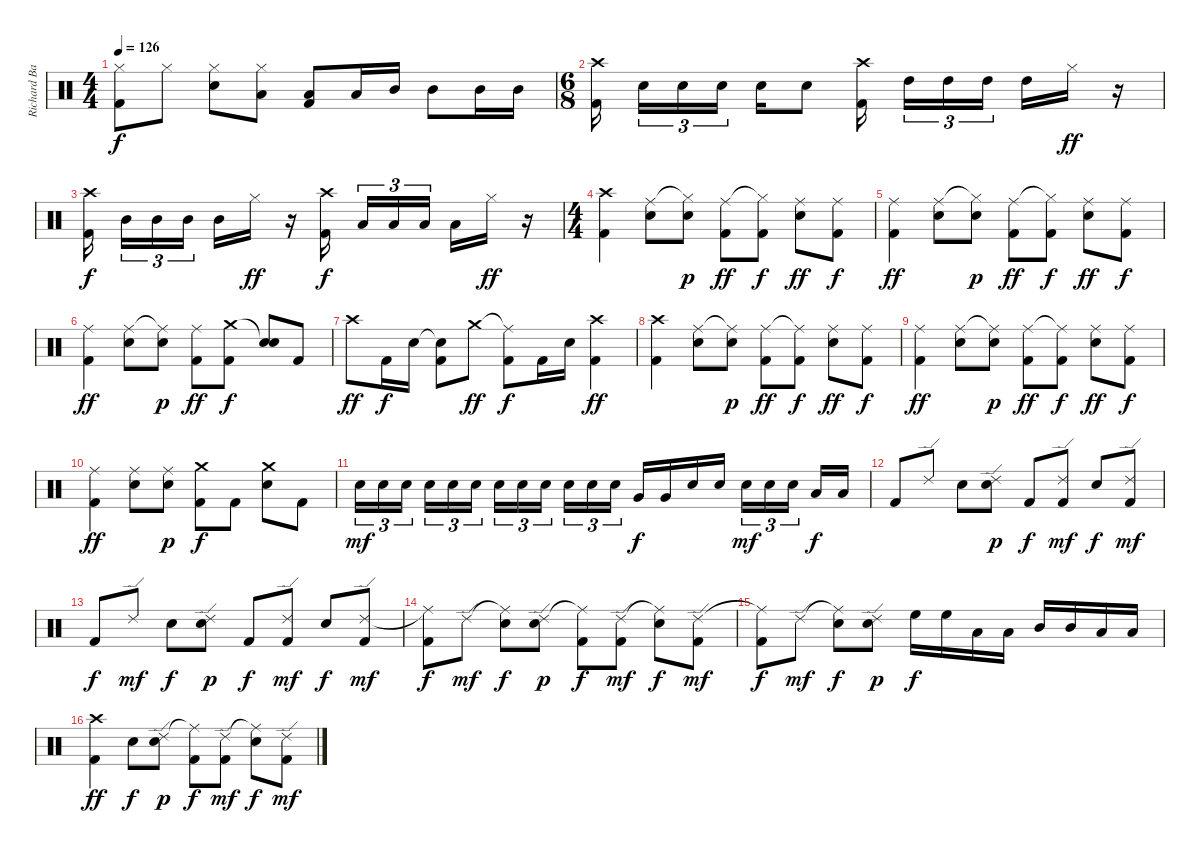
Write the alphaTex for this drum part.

\track ("Richard Bailey" "Richard Ba") {instrument percussion}
\staff {score}
\articulation defaults
\ts (4 4)
\tempo 126
\clef neutral
\ks c
("Hi-Hat (closed)" "Kick (hit) 2").8{dy f} "Hi-Hat (closed)".8 ("Hi-Hat (closed)" "Snare (hit) 2").8 ("Hi-Hat (closed)" "Low Tom (hit)").8 ("Low Tom (hit)" "Kick (hit) 2").8 "Low Tom (hit)".16 "Mid Tom (hit)".16 "Mid Tom (hit)".8 "Mid Tom (hit)".16 "Mid Tom (hit)".16 |
\ts (6 8)
("Crash high (hit)" "Kick (hit) 2").16 "Snare (hit) 2".16{tu (3 2)} "Snare (hit) 2".16{tu (3 2)} "Snare (hit) 2".16{tu (3 2)} "Snare (hit) 2".16 "Snare (hit) 2".8 ("Crash high (hit)" "Kick (hit) 2").16 "High Tom (hit)".16{tu (3 2)} "High Tom (hit)".16{tu (3 2)} "High Tom (hit)".16{tu (3 2)} "High Tom (hit)".16 "Hi-Hat (closed)".16{dy ff} r.16 |
("Crash high (hit)" "Kick (hit) 2").16{dy f} "Mid Tom (hit)".16{tu (3 2)} "Mid Tom (hit)".16{tu (3 2)} "Mid Tom (hit)".16{tu (3 2)} "Mid Tom (hit)".16 "Hi-Hat (closed)".16{dy ff} r.16 ("Crash high (hit)" "Kick (hit) 2").16{dy f} "Low Tom (hit)".16{tu (3 2)} "Low Tom (hit)".16{tu (3 2)} "Low Tom (hit)".16{tu (3 2)} "Low Tom (hit)".16 "Hi-Hat (closed)".16{dy ff} r.16 |
\ts (4 4)
("Crash high (hit)" "Kick (hit) 2").4 ("Ride (middle)" "Snare (hit) 2").8 ("Hi-Hat (closed)"{t} "Snare (hit) 2").8{dy p} ("Ride (middle)" "Kick (hit) 2").8{dy ff} ("Hi-Hat (closed)"{t} "Kick (hit) 2").8{dy f} ("Ride (middle)" "Snare (hit) 2").8{dy ff} ("Ride (middle)" "Kick (hit) 2").8{dy f} |
("Ride (middle)" "Kick (hit) 2").4{dy ff} ("Ride (middle)" "Snare (hit) 2").8 ("Hi-Hat (closed)"{t} "Snare (hit) 2").8{dy p} ("Ride (middle)" "Kick (hit) 2").8{dy ff} ("Hi-Hat (closed)"{t} "Kick (hit) 2").8{dy f} ("Ride (middle)" "Snare (hit) 2").8{dy ff} ("Ride (middle)" "Kick (hit) 2").8{dy f} |
("Ride (middle)" "Kick (hit) 2").4{dy ff} ("Ride (middle)" "Snare (hit) 2").8 ("Ride (middle)"{t} "Snare (hit) 2").8{dy p} ("Ride (middle)" "Kick (hit) 2").8{dy ff} ("Crash medium (hit)" "Kick (hit) 2").8{dy f} ("Snare (hit)"{t} "Snare (hit) 2").8 "Kick (hit) 2".8 |
"Crash high (hit)".8{dy ff} "Kick (hit) 2".16{dy f} "Snare (hit) 2".16 ("Snare (hit)"{t} "Kick (hit) 2").8 "Crash medium (hit)".8{dy ff} ("Ride (middle)"{t} "Kick (hit) 2").8{dy f} "Kick (hit) 2".16 "Snare (hit) 2".16 ("Crash high (hit)" "Kick (hit) 2").4{dy ff} |
("Crash high (hit)" "Kick (hit) 2").4 ("Ride (middle)" "Snare (hit) 2").8 ("Ride (middle)"{t} "Snare (hit) 2").8{dy p} ("Ride (middle)" "Kick (hit) 2").8{dy ff} ("Ride (middle)"{t} "Kick (hit) 2").8{dy f} ("Ride (middle)" "Snare (hit) 2").8{dy ff} ("Ride (middle)" "Kick (hit) 2").8{dy f} |
("Ride (middle)" "Kick (hit) 2").4{dy ff} ("Ride (middle)" "Snare (hit) 2").8 ("Ride (middle)"{t} "Snare (hit) 2").8{dy p} ("Ride (middle)" "Kick (hit) 2").8{dy ff} ("Ride (middle)"{t} "Kick (hit) 2").8{dy f} ("Ride (middle)" "Snare (hit) 2").8{dy ff} ("Ride (middle)" "Kick (hit) 2").8{dy f} |
("Ride (middle)" "Kick (hit) 2").4{dy ff} ("Ride (middle)" "Snare (hit) 2").8 ("Ride (middle)" "Snare (hit) 2").8{dy p} ("Crash medium (hit)" "Kick (hit) 2").8{dy f} "Kick (hit) 2".8 ("Crash medium (hit)" "Snare (hit) 2").8 "Kick (hit) 2".8 |
"Electric Snare (hit)".16{tu (3 2) dy mf} "Electric Snare (hit)".16{tu (3 2)} "Electric Snare (hit)".16{tu (3 2)} "Electric Snare (hit)".16{tu (3 2)} "Electric Snare (hit)".16{tu (3 2)} "Electric Snare (hit)".16{tu (3 2)} "Electric Snare (hit)".16{tu (3 2)} "Electric Snare (hit)".16{tu (3 2)} "Electric Snare (hit)".16{tu (3 2)} "Electric Snare (hit)".16{tu (3 2)} "Electric Snare (hit)".16{tu (3 2)} "Electric Snare (hit)".16{tu (3 2)} "Very Low Tom (hit)".16{dy f} "Very Low Tom (hit)".16 "Electric Snare (hit)".16 "Electric Snare (hit)".16 "Electric Snare (hit)".16{tu (3 2) dy mf} "Electric Snare (hit)".16{tu (3 2)} "Electric Snare (hit)".16{tu (3 2)} "Low Tom (hit)".16{dy f} "Low Tom (hit)".16 |
"Kick (hit) 2".8 "Ride (edge) 2".8 "Snare (hit) 2".8 ("Ride (edge) 2" "Snare (hit) 2").8{dy p} "Kick (hit) 2".8{dy f} ("Ride (edge) 2" "Kick (hit) 2").8{dy mf} "Snare (hit) 2".8{dy f} ("Ride (edge) 2" "Kick (hit) 2").8{dy mf} |
"Kick (hit) 2".8{dy f} "Ride (edge) 2".8{dy mf} "Snare (hit) 2".8{dy f} ("Ride (edge) 2" "Snare (hit) 2").8{dy p} "Kick (hit) 2".8{dy f} ("Ride (edge) 2" "Kick (hit) 2").8{dy mf} "Snare (hit) 2".8{dy f} ("Ride (edge) 2" "Kick (hit) 2").8{dy mf} |
("Ride (middle)"{t} "Kick (hit) 2").8{dy f} "Ride (edge) 2".8{dy mf} ("Ride (middle)"{t} "Snare (hit) 2").8{dy f} ("Ride (edge) 2" "Snare (hit) 2").8{dy p} ("Ride (middle)"{t} "Kick (hit) 2").8{dy f} ("Ride (edge) 2" "Kick (hit) 2").8{dy mf} ("Ride (middle)"{t} "Snare (hit) 2").8{dy f} ("Ride (edge) 2" "Kick (hit) 2").8{dy mf} |
("Ride (middle)"{t} "Kick (hit) 2").8{dy f} "Ride (edge) 2".8{dy mf} ("Ride (middle)"{t} "Snare (hit) 2").8{dy f} ("Ride (edge) 2" "Snare (hit) 2").8{dy p} "High Floor Tom (hit)".16{dy f} "High Floor Tom (hit)".16 "Low Tom (hit)".16 "Low Tom (hit)".16 "Mid Tom (hit)".16 "Mid Tom (hit)".16 "Low Tom (hit)".16 "Low Tom (hit)".16 |
("Crash high (hit)" "Kick (hit) 2").4{dy ff} "Snare (hit) 2".8{dy f} ("Ride (edge) 2" "Snare (hit) 2").8{dy p} ("Ride (middle)"{t} "Kick (hit) 2").8{dy f} ("Ride (edge) 2" "Kick (hit) 2").8{dy mf} ("Ride (middle)"{t} "Snare (hit) 2").8{dy f} ("Ride (edge) 2" "Kick (hit) 2").8{dy mf}
